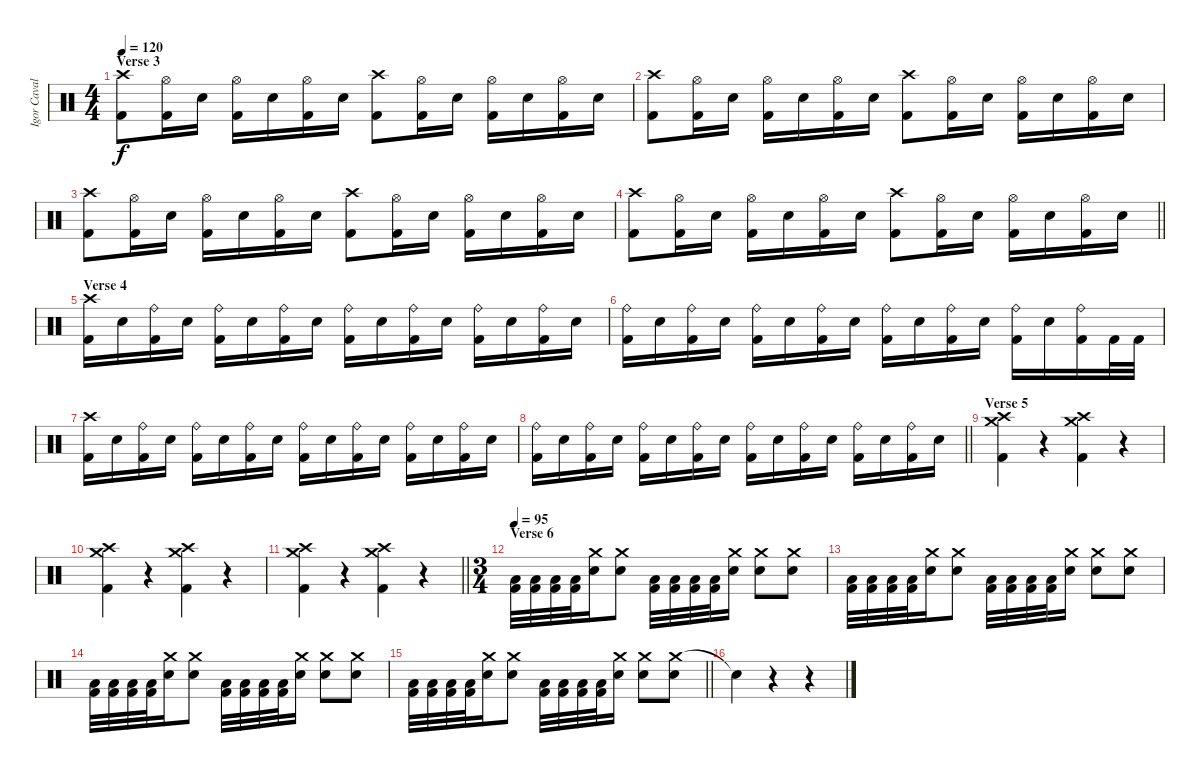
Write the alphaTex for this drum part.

\track ("Igor Cavalera" "Igor Caval") {instrument percussion}
\staff {score}
\articulation defaults
\ts (4 4)
\section ("" "Verse 3")
\tempo 120
\clef neutral
\ks c
("Crash high (hit)" "Kick (hit) 2").8{dy f} ("Hi-Hat (open)" "Kick (hit) 2").16 "Electric Snare (hit)".16 ("Hi-Hat (open)" "Kick (hit) 2").16 "Electric Snare (hit)".16 ("Hi-Hat (open)" "Kick (hit) 2").16 "Electric Snare (hit)".16 ("Crash high (hit)" "Kick (hit) 2").8 ("Hi-Hat (open)" "Kick (hit) 2").16 "Electric Snare (hit)".16 ("Hi-Hat (open)" "Kick (hit) 2").16 "Electric Snare (hit)".16 ("Hi-Hat (open)" "Kick (hit) 2").16 "Electric Snare (hit)".16 |
("Crash high (hit)" "Kick (hit) 2").8 ("Hi-Hat (open)" "Kick (hit) 2").16 "Electric Snare (hit)".16 ("Hi-Hat (open)" "Kick (hit) 2").16 "Electric Snare (hit)".16 ("Hi-Hat (open)" "Kick (hit) 2").16 "Electric Snare (hit)".16 ("Crash high (hit)" "Kick (hit) 2").8 ("Hi-Hat (open)" "Kick (hit) 2").16 "Electric Snare (hit)".16 ("Hi-Hat (open)" "Kick (hit) 2").16 "Electric Snare (hit)".16 ("Hi-Hat (open)" "Kick (hit) 2").16 "Electric Snare (hit)".16 |
("Crash high (hit)" "Kick (hit) 2").8 ("Hi-Hat (open)" "Kick (hit) 2").16 "Electric Snare (hit)".16 ("Hi-Hat (open)" "Kick (hit) 2").16 "Electric Snare (hit)".16 ("Hi-Hat (open)" "Kick (hit) 2").16 "Electric Snare (hit)".16 ("Crash high (hit)" "Kick (hit) 2").8 ("Hi-Hat (open)" "Kick (hit) 2").16 "Electric Snare (hit)".16 ("Hi-Hat (open)" "Kick (hit) 2").16 "Electric Snare (hit)".16 ("Hi-Hat (open)" "Kick (hit) 2").16 "Electric Snare (hit)".16 |
\barLineRight lightlight
("Crash high (hit)" "Kick (hit) 2").8 ("Hi-Hat (open)" "Kick (hit) 2").16 "Electric Snare (hit)".16 ("Hi-Hat (open)" "Kick (hit) 2").16 "Electric Snare (hit)".16 ("Hi-Hat (open)" "Kick (hit) 2").16 "Electric Snare (hit)".16 ("Crash high (hit)" "Kick (hit) 2").8 ("Hi-Hat (open)" "Kick (hit) 2").16 "Electric Snare (hit)".16 ("Hi-Hat (open)" "Kick (hit) 2").16 "Electric Snare (hit)".16 ("Hi-Hat (open)" "Kick (hit) 2").16 "Electric Snare (hit)".16 |
\section ("" "Verse 4")
("Crash high (hit)" "Kick (hit) 2").16 "Electric Snare (hit)".16 ("Ride (bell)" "Kick (hit) 2").16 "Electric Snare (hit)".16 ("Ride (bell)" "Kick (hit) 2").16 "Electric Snare (hit)".16 ("Ride (bell)" "Kick (hit) 2").16 "Electric Snare (hit)".16 ("Ride (bell)" "Kick (hit) 2").16 "Electric Snare (hit)".16 ("Ride (bell)" "Kick (hit) 2").16 "Electric Snare (hit)".16 ("Ride (bell)" "Kick (hit) 2").16 "Electric Snare (hit)".16 ("Ride (bell)" "Kick (hit) 2").16 "Electric Snare (hit)".16 |
("Ride (bell)" "Kick (hit) 2").16 "Electric Snare (hit)".16 ("Ride (bell)" "Kick (hit) 2").16 "Electric Snare (hit)".16 ("Ride (bell)" "Kick (hit) 2").16 "Electric Snare (hit)".16 ("Ride (bell)" "Kick (hit) 2").16 "Electric Snare (hit)".16 ("Ride (bell)" "Kick (hit) 2").16 "Electric Snare (hit)".16 ("Ride (bell)" "Kick (hit) 2").16 "Electric Snare (hit)".16 ("Ride (bell)" "Kick (hit) 2").16 "Electric Snare (hit)".16 ("Ride (bell)" "Kick (hit) 2").16 "Kick (hit) 2".32 "Kick (hit) 2".32 |
("Crash high (hit)" "Kick (hit) 2").16 "Electric Snare (hit)".16 ("Ride (bell)" "Kick (hit) 2").16 "Electric Snare (hit)".16 ("Ride (bell)" "Kick (hit) 2").16 "Electric Snare (hit)".16 ("Ride (bell)" "Kick (hit) 2").16 "Electric Snare (hit)".16 ("Ride (bell)" "Kick (hit) 2").16 "Electric Snare (hit)".16 ("Ride (bell)" "Kick (hit) 2").16 "Electric Snare (hit)".16 ("Ride (bell)" "Kick (hit) 2").16 "Electric Snare (hit)".16 ("Ride (bell)" "Kick (hit) 2").16 "Electric Snare (hit)".16 |
\barLineRight lightlight
("Ride (bell)" "Kick (hit) 2").16 "Electric Snare (hit)".16 ("Ride (bell)" "Kick (hit) 2").16 "Electric Snare (hit)".16 ("Ride (bell)" "Kick (hit) 2").16 "Electric Snare (hit)".16 ("Ride (bell)" "Kick (hit) 2").16 "Electric Snare (hit)".16 ("Ride (bell)" "Kick (hit) 2").16 "Electric Snare (hit)".16 ("Ride (bell)" "Kick (hit) 2").16 "Electric Snare (hit)".16 ("Ride (bell)" "Kick (hit) 2").16 "Electric Snare (hit)".16 ("Ride (bell)" "Kick (hit) 2").16 "Electric Snare (hit)".16 |
\section ("" "Verse 5")
("Crash high (hit)" "Crash medium (hit)" "Kick (hit) 2").4 r.4 ("Crash high (hit)" "Crash medium (hit)" "Kick (hit) 2").4 r.4 |
("Crash high (hit)" "Crash medium (hit)" "Kick (hit) 2").4 r.4 ("Crash high (hit)" "Crash medium (hit)" "Kick (hit) 2").4 r.4 |
\barLineRight lightlight
("Crash high (hit)" "Crash medium (hit)" "Kick (hit) 2").4 r.4 ("Crash high (hit)" "Crash medium (hit)" "Kick (hit) 2").4 r.4 |
\ts (3 4)
\section ("" "Verse 6")
\tempo 95
("Low Floor Tom (hit)" "Kick (hit) 2").32 ("Low Floor Tom (hit)" "Kick (hit) 2").32 ("Low Floor Tom (hit)" "Kick (hit) 2").32 ("Low Floor Tom (hit)" "Kick (hit) 2").32 ("Crash medium (hit)" "Electric Snare (hit)").16 ("Crash medium (hit)" "Electric Snare (hit)").8 ("Low Floor Tom (hit)" "Kick (hit) 2").32 ("Low Floor Tom (hit)" "Kick (hit) 2").32 ("Low Floor Tom (hit)" "Kick (hit) 2").32 ("Low Floor Tom (hit)" "Kick (hit) 2").32 ("Crash medium (hit)" "Electric Snare (hit)").16 ("Crash medium (hit)" "Electric Snare (hit)").8 ("Crash medium (hit)" "Electric Snare (hit)").8 |
("Low Floor Tom (hit)" "Kick (hit) 2").32 ("Low Floor Tom (hit)" "Kick (hit) 2").32 ("Low Floor Tom (hit)" "Kick (hit) 2").32 ("Low Floor Tom (hit)" "Kick (hit) 2").32 ("Crash medium (hit)" "Electric Snare (hit)").16 ("Crash medium (hit)" "Electric Snare (hit)").8 ("Low Floor Tom (hit)" "Kick (hit) 2").32 ("Low Floor Tom (hit)" "Kick (hit) 2").32 ("Low Floor Tom (hit)" "Kick (hit) 2").32 ("Low Floor Tom (hit)" "Kick (hit) 2").32 ("Crash medium (hit)" "Electric Snare (hit)").16 ("Crash medium (hit)" "Electric Snare (hit)").8 ("Crash medium (hit)" "Electric Snare (hit)").8 |
("Low Floor Tom (hit)" "Kick (hit) 2").32 ("Low Floor Tom (hit)" "Kick (hit) 2").32 ("Low Floor Tom (hit)" "Kick (hit) 2").32 ("Low Floor Tom (hit)" "Kick (hit) 2").32 ("Crash medium (hit)" "Electric Snare (hit)").16 ("Crash medium (hit)" "Electric Snare (hit)").8 ("Low Floor Tom (hit)" "Kick (hit) 2").32 ("Low Floor Tom (hit)" "Kick (hit) 2").32 ("Low Floor Tom (hit)" "Kick (hit) 2").32 ("Low Floor Tom (hit)" "Kick (hit) 2").32 ("Crash medium (hit)" "Electric Snare (hit)").16 ("Crash medium (hit)" "Electric Snare (hit)").8 ("Crash medium (hit)" "Electric Snare (hit)").8 |
\barLineRight lightlight
("Low Floor Tom (hit)" "Kick (hit) 2").32 ("Low Floor Tom (hit)" "Kick (hit) 2").32 ("Low Floor Tom (hit)" "Kick (hit) 2").32 ("Low Floor Tom (hit)" "Kick (hit) 2").32 ("Crash medium (hit)" "Electric Snare (hit)").16 ("Crash medium (hit)" "Electric Snare (hit)").8 ("Low Floor Tom (hit)" "Kick (hit) 2").32 ("Low Floor Tom (hit)" "Kick (hit) 2").32 ("Low Floor Tom (hit)" "Kick (hit) 2").32 ("Low Floor Tom (hit)" "Kick (hit) 2").32 ("Crash medium (hit)" "Electric Snare (hit)").16 ("Crash medium (hit)" "Electric Snare (hit)").8 ("Crash medium (hit)" "Electric Snare (hit)").8 |
"Snare (hit)"{t}.4 r.4 r.4
